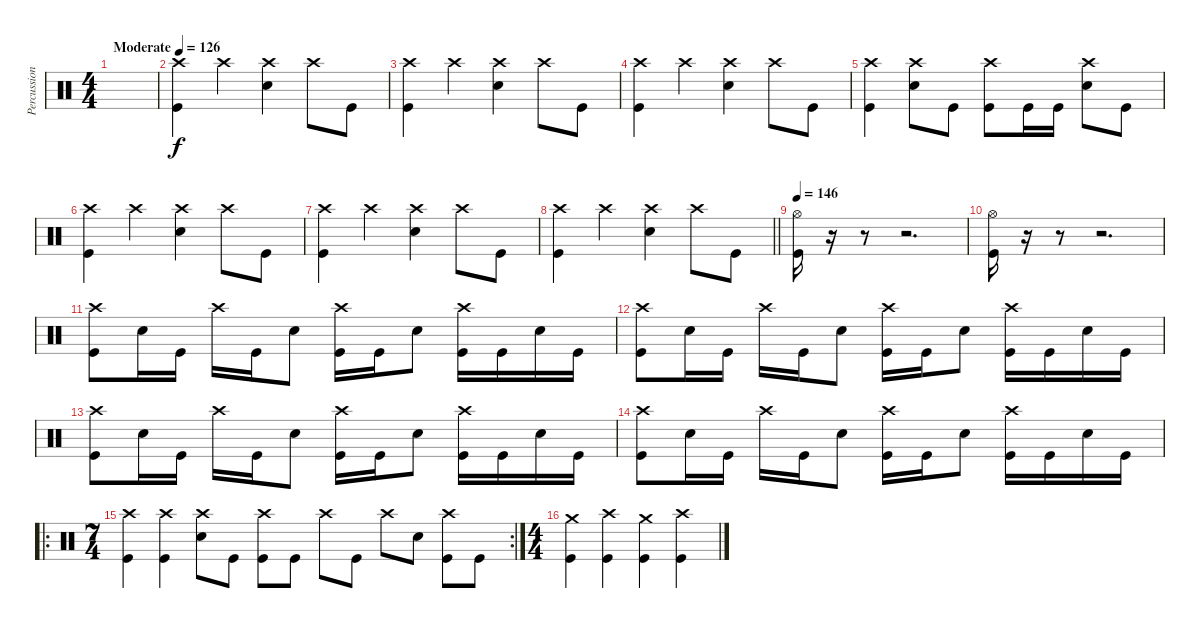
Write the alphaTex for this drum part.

\track ("Percussion" "Percussion") {instrument percussion}
\staff {score}
\articulation defaults
\ts (4 4)
\tempo (126 "Moderate")
\clef neutral
\ks c
|
("Crash high (hit)" "Kick (hit)").4 "Crash high (hit)".4 ("Crash high (hit)" "Snare (hit) 2").4 "Crash high (hit)".8 "Kick (hit)".8 |
("Crash high (hit)" "Kick (hit)").4 "Crash high (hit)".4 ("Crash high (hit)" "Snare (hit) 2").4 "Crash high (hit)".8 "Kick (hit)".8 |
("Crash high (hit)" "Kick (hit)").4 "Crash high (hit)".4 ("Crash high (hit)" "Snare (hit) 2").4 "Crash high (hit)".8 "Kick (hit)".8 |
("Crash high (hit)" "Kick (hit)").4 ("Crash high (hit)" "Snare (hit) 2").8 "Kick (hit)".8 ("Crash high (hit)" "Kick (hit)").8 "Kick (hit)".16 "Kick (hit)".16 ("Crash high (hit)" "Snare (hit) 2").8 "Kick (hit)".8 |
("Crash high (hit)" "Kick (hit)").4 "Crash high (hit)".4 ("Crash high (hit)" "Snare (hit) 2").4 "Crash high (hit)".8 "Kick (hit)".8 |
("Crash high (hit)" "Kick (hit)").4 "Crash high (hit)".4 ("Crash high (hit)" "Snare (hit) 2").4 "Crash high (hit)".8 "Kick (hit)".8 |
\barLineRight lightlight
("Crash high (hit)" "Kick (hit)").4 "Crash high (hit)".4 ("Crash high (hit)" "Snare (hit) 2").4 "Crash high (hit)".8 "Kick (hit)".8 |
\tempo 146
("Hi-Hat (open)" "Kick (hit)").16{volume 13} r.16{volume 0} r.8 r.2{d} |
("Hi-Hat (open)" "Kick (hit)").16{volume 13} r.16{volume 0} r.8 r.2{d} |
("Crash high (hit)" "Kick (hit)").8{volume 13} "Snare (hit) 2".16 "Kick (hit)".16 "Crash high (hit)".16 "Kick (hit)".16 "Snare (hit) 2".8 ("Crash high (hit)" "Kick (hit)").16 "Kick (hit)".16 "Snare (hit) 2".8 ("Crash high (hit)" "Kick (hit)").16 "Kick (hit)".16 "Snare (hit) 2".16 "Kick (hit)".16 |
("Crash high (hit)" "Kick (hit)").8 "Snare (hit) 2".16 "Kick (hit)".16 "Crash high (hit)".16 "Kick (hit)".16 "Snare (hit) 2".8 ("Crash high (hit)" "Kick (hit)").16 "Kick (hit)".16 "Snare (hit) 2".8 ("Crash high (hit)" "Kick (hit)").16 "Kick (hit)".16 "Snare (hit) 2".16 "Kick (hit)".16 |
("Crash high (hit)" "Kick (hit)").8{volume 13} "Snare (hit) 2".16 "Kick (hit)".16 "Crash high (hit)".16 "Kick (hit)".16 "Snare (hit) 2".8 ("Crash high (hit)" "Kick (hit)").16 "Kick (hit)".16 "Snare (hit) 2".8 ("Crash high (hit)" "Kick (hit)").16 "Kick (hit)".16 "Snare (hit) 2".16 "Kick (hit)".16 |
("Crash high (hit)" "Kick (hit)").8{volume 13} "Snare (hit) 2".16 "Kick (hit)".16 "Crash high (hit)".16 "Kick (hit)".16 "Snare (hit) 2".8 ("Crash high (hit)" "Kick (hit)").16 "Kick (hit)".16 "Snare (hit) 2".8 ("Crash high (hit)" "Kick (hit)").16 "Kick (hit)".16 "Snare (hit) 2".16 "Kick (hit)".16 |
\ro
\rc 2
\ts (7 4)
("Crash high (hit)" "Kick (hit)").4 ("Crash high (hit)" "Kick (hit)").4 ("Crash high (hit)" "Snare (hit) 2").8 "Kick (hit)".8 ("Crash high (hit)" "Kick (hit)").8 "Kick (hit)".8 "Crash high (hit)".8 "Kick (hit)".8 "Crash high (hit)".8 "Snare (hit) 2".8 ("Crash high (hit)" "Kick (hit)").8 "Kick (hit)".8 |
\ts (4 4)
("Crash medium (hit)" "Kick (hit)").4 ("Crash high (hit)" "Kick (hit)").4 ("Crash medium (hit)" "Kick (hit)").4 ("Crash high (hit)" "Kick (hit)").4
